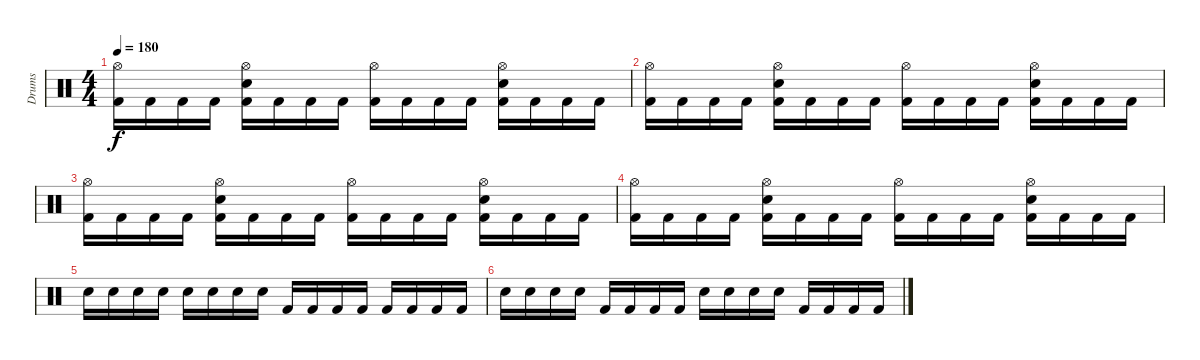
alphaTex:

\track ("Drums" "Drums") {instrument percussion}
\staff {score}
\articulation defaults
\ts (4 4)
\tempo 180
\clef neutral
\ks c
("Hi-Hat (open)" "Kick (hit) 2").16{dy f} "Kick (hit) 2".16 "Kick (hit) 2".16 "Kick (hit) 2".16 ("Hi-Hat (open)" "Electric Snare (hit)" "Kick (hit) 2").16 "Kick (hit) 2".16 "Kick (hit) 2".16 "Kick (hit) 2".16 ("Hi-Hat (open)" "Kick (hit) 2").16 "Kick (hit) 2".16 "Kick (hit) 2".16 "Kick (hit) 2".16 ("Hi-Hat (open)" "Electric Snare (hit)" "Kick (hit) 2").16 "Kick (hit) 2".16 "Kick (hit) 2".16 "Kick (hit) 2".16 |
("Hi-Hat (open)" "Kick (hit) 2").16 "Kick (hit) 2".16 "Kick (hit) 2".16 "Kick (hit) 2".16 ("Hi-Hat (open)" "Electric Snare (hit)" "Kick (hit) 2").16 "Kick (hit) 2".16 "Kick (hit) 2".16 "Kick (hit) 2".16 ("Hi-Hat (open)" "Kick (hit) 2").16 "Kick (hit) 2".16 "Kick (hit) 2".16 "Kick (hit) 2".16 ("Hi-Hat (open)" "Electric Snare (hit)" "Kick (hit) 2").16 "Kick (hit) 2".16 "Kick (hit) 2".16 "Kick (hit) 2".16 |
("Hi-Hat (open)" "Kick (hit) 2").16 "Kick (hit) 2".16 "Kick (hit) 2".16 "Kick (hit) 2".16 ("Hi-Hat (open)" "Electric Snare (hit)" "Kick (hit) 2").16 "Kick (hit) 2".16 "Kick (hit) 2".16 "Kick (hit) 2".16 ("Hi-Hat (open)" "Kick (hit) 2").16 "Kick (hit) 2".16 "Kick (hit) 2".16 "Kick (hit) 2".16 ("Hi-Hat (open)" "Electric Snare (hit)" "Kick (hit) 2").16 "Kick (hit) 2".16 "Kick (hit) 2".16 "Kick (hit) 2".16 |
("Hi-Hat (open)" "Kick (hit) 2").16 "Kick (hit) 2".16 "Kick (hit) 2".16 "Kick (hit) 2".16 ("Hi-Hat (open)" "Electric Snare (hit)" "Kick (hit) 2").16 "Kick (hit) 2".16 "Kick (hit) 2".16 "Kick (hit) 2".16 ("Hi-Hat (open)" "Kick (hit) 2").16 "Kick (hit) 2".16 "Kick (hit) 2".16 "Kick (hit) 2".16 ("Hi-Hat (open)" "Electric Snare (hit)" "Kick (hit) 2").16 "Kick (hit) 2".16 "Kick (hit) 2".16 "Kick (hit) 2".16 |
"Electric Snare (hit)".16 "Electric Snare (hit)".16 "Electric Snare (hit)".16 "Electric Snare (hit)".16 "Electric Snare (hit)".16 "Electric Snare (hit)".16 "Electric Snare (hit)".16 "Electric Snare (hit)".16 "Kick (hit) 2".16 "Kick (hit) 2".16 "Kick (hit) 2".16 "Kick (hit) 2".16 "Kick (hit) 2".16 "Kick (hit) 2".16 "Kick (hit) 2".16 "Kick (hit) 2".16 |
"Electric Snare (hit)".16 "Electric Snare (hit)".16 "Electric Snare (hit)".16 "Electric Snare (hit)".16 "Kick (hit) 2".16 "Kick (hit) 2".16 "Kick (hit) 2".16 "Kick (hit) 2".16 "Electric Snare (hit)".16 "Electric Snare (hit)".16 "Electric Snare (hit)".16 "Electric Snare (hit)".16 "Kick (hit) 2".16 "Kick (hit) 2".16 "Kick (hit) 2".16 "Kick (hit) 2".16
